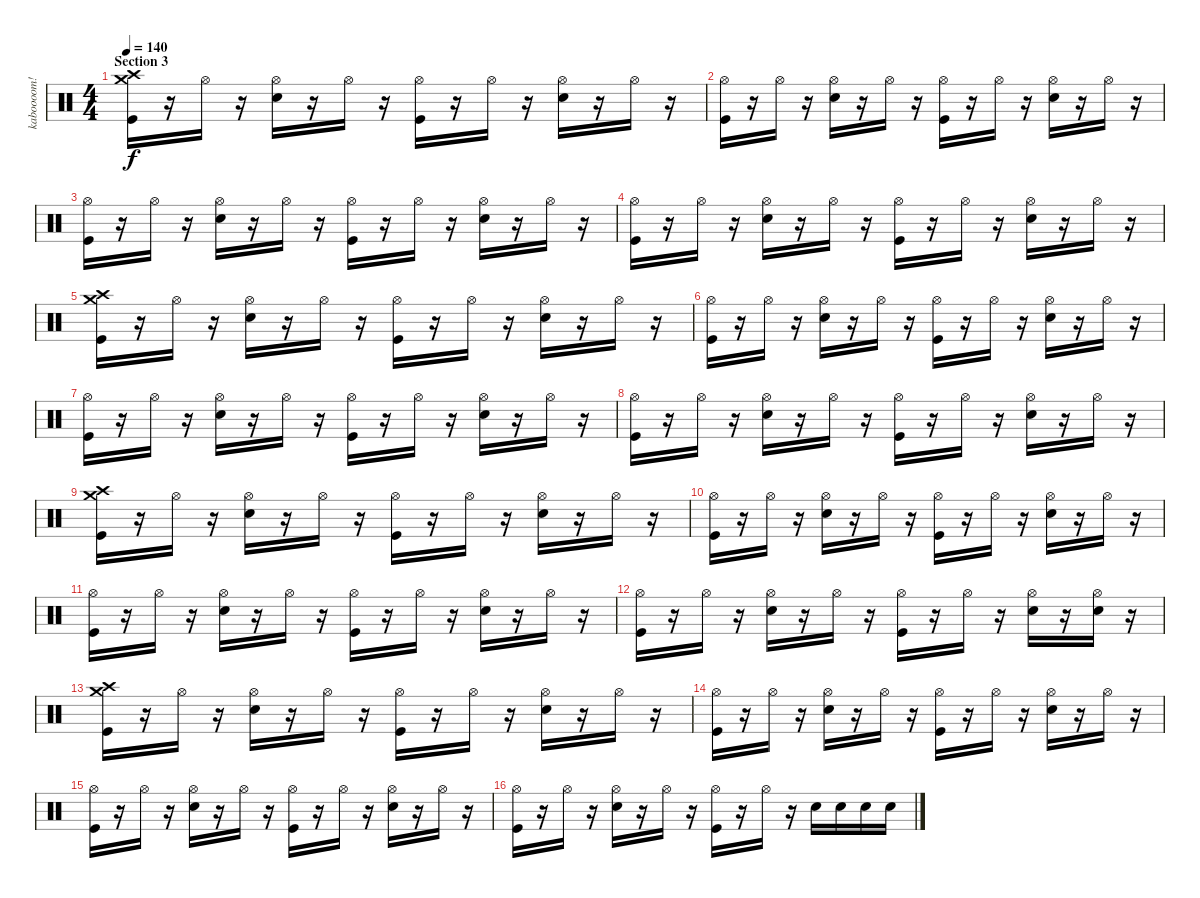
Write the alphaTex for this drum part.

\track ("kaboooom!" "kaboooom!") {instrument percussion}
\staff {score}
\articulation defaults
\ts (4 4)
\section ("" "Section 3")
\tempo 140
\clef neutral
\ks c
("Crash high (hit)" "Crash medium (hit)" "Kick (hit)").16{dy f} r.16 "Hi-Hat (open)".16 r.16 ("Hi-Hat (open)" "Electric Snare (hit)").16 r.16 "Hi-Hat (open)".16 r.16 ("Hi-Hat (open)" "Kick (hit)").16 r.16 "Hi-Hat (open)".16 r.16 ("Hi-Hat (open)" "Electric Snare (hit)").16 r.16 "Hi-Hat (open)".16 r.16 |
("Hi-Hat (open)" "Kick (hit)").16 r.16 "Hi-Hat (open)".16 r.16 ("Hi-Hat (open)" "Electric Snare (hit)").16 r.16 "Hi-Hat (open)".16 r.16 ("Hi-Hat (open)" "Kick (hit)").16 r.16 "Hi-Hat (open)".16 r.16 ("Hi-Hat (open)" "Electric Snare (hit)").16 r.16 "Hi-Hat (open)".16 r.16 |
("Hi-Hat (open)" "Kick (hit)").16 r.16 "Hi-Hat (open)".16 r.16 ("Hi-Hat (open)" "Electric Snare (hit)").16 r.16 "Hi-Hat (open)".16 r.16 ("Hi-Hat (open)" "Kick (hit)").16 r.16 "Hi-Hat (open)".16 r.16 ("Hi-Hat (open)" "Electric Snare (hit)").16 r.16 "Hi-Hat (open)".16 r.16 |
("Hi-Hat (open)" "Kick (hit)").16 r.16 "Hi-Hat (open)".16 r.16 ("Hi-Hat (open)" "Electric Snare (hit)").16 r.16 "Hi-Hat (open)".16 r.16 ("Hi-Hat (open)" "Kick (hit)").16 r.16 "Hi-Hat (open)".16 r.16 ("Hi-Hat (open)" "Electric Snare (hit)").16 r.16 "Hi-Hat (open)".16 r.16 |
("Crash high (hit)" "Crash medium (hit)" "Kick (hit)").16 r.16 "Hi-Hat (open)".16 r.16 ("Hi-Hat (open)" "Electric Snare (hit)").16 r.16 "Hi-Hat (open)".16 r.16 ("Hi-Hat (open)" "Kick (hit)").16 r.16 "Hi-Hat (open)".16 r.16 ("Hi-Hat (open)" "Electric Snare (hit)").16 r.16 "Hi-Hat (open)".16 r.16 |
("Hi-Hat (open)" "Kick (hit)").16 r.16 "Hi-Hat (open)".16 r.16 ("Hi-Hat (open)" "Electric Snare (hit)").16 r.16 "Hi-Hat (open)".16 r.16 ("Hi-Hat (open)" "Kick (hit)").16 r.16 "Hi-Hat (open)".16 r.16 ("Hi-Hat (open)" "Electric Snare (hit)").16 r.16 "Hi-Hat (open)".16 r.16 |
("Hi-Hat (open)" "Kick (hit)").16 r.16 "Hi-Hat (open)".16 r.16 ("Hi-Hat (open)" "Electric Snare (hit)").16 r.16 "Hi-Hat (open)".16 r.16 ("Hi-Hat (open)" "Kick (hit)").16 r.16 "Hi-Hat (open)".16 r.16 ("Hi-Hat (open)" "Electric Snare (hit)").16 r.16 "Hi-Hat (open)".16 r.16 |
("Hi-Hat (open)" "Kick (hit)").16 r.16 "Hi-Hat (open)".16 r.16 ("Hi-Hat (open)" "Electric Snare (hit)").16 r.16 "Hi-Hat (open)".16 r.16 ("Hi-Hat (open)" "Kick (hit)").16 r.16 "Hi-Hat (open)".16 r.16 ("Hi-Hat (open)" "Electric Snare (hit)").16 r.16 "Hi-Hat (open)".16 r.16 |
("Crash high (hit)" "Crash medium (hit)" "Kick (hit)").16 r.16 "Hi-Hat (open)".16 r.16 ("Hi-Hat (open)" "Electric Snare (hit)").16 r.16 "Hi-Hat (open)".16 r.16 ("Hi-Hat (open)" "Kick (hit)").16 r.16 "Hi-Hat (open)".16 r.16 ("Hi-Hat (open)" "Electric Snare (hit)").16 r.16 "Hi-Hat (open)".16 r.16 |
("Hi-Hat (open)" "Kick (hit)").16 r.16 "Hi-Hat (open)".16 r.16 ("Hi-Hat (open)" "Electric Snare (hit)").16 r.16 "Hi-Hat (open)".16 r.16 ("Hi-Hat (open)" "Kick (hit)").16 r.16 "Hi-Hat (open)".16 r.16 ("Hi-Hat (open)" "Electric Snare (hit)").16 r.16 "Hi-Hat (open)".16 r.16 |
("Hi-Hat (open)" "Kick (hit)").16 r.16 "Hi-Hat (open)".16 r.16 ("Hi-Hat (open)" "Electric Snare (hit)").16 r.16 "Hi-Hat (open)".16 r.16 ("Hi-Hat (open)" "Kick (hit)").16 r.16 "Hi-Hat (open)".16 r.16 ("Hi-Hat (open)" "Electric Snare (hit)").16 r.16 "Hi-Hat (open)".16 r.16 |
("Hi-Hat (open)" "Kick (hit)").16 r.16 "Hi-Hat (open)".16 r.16 ("Hi-Hat (open)" "Electric Snare (hit)").16 r.16 "Hi-Hat (open)".16 r.16 ("Hi-Hat (open)" "Kick (hit)").16 r.16 "Hi-Hat (open)".16 r.16 ("Hi-Hat (open)" "Electric Snare (hit)").16 r.16 ("Hi-Hat (open)" "Electric Snare (hit)").16 r.16 |
("Crash high (hit)" "Crash medium (hit)" "Kick (hit)").16 r.16 "Hi-Hat (open)".16 r.16 ("Hi-Hat (open)" "Electric Snare (hit)").16 r.16 "Hi-Hat (open)".16 r.16 ("Hi-Hat (open)" "Kick (hit)").16 r.16 "Hi-Hat (open)".16 r.16 ("Hi-Hat (open)" "Electric Snare (hit)").16 r.16 "Hi-Hat (open)".16 r.16 |
("Hi-Hat (open)" "Kick (hit)").16 r.16 "Hi-Hat (open)".16 r.16 ("Hi-Hat (open)" "Electric Snare (hit)").16 r.16 "Hi-Hat (open)".16 r.16 ("Hi-Hat (open)" "Kick (hit)").16 r.16 "Hi-Hat (open)".16 r.16 ("Hi-Hat (open)" "Electric Snare (hit)").16 r.16 "Hi-Hat (open)".16 r.16 |
("Hi-Hat (open)" "Kick (hit)").16 r.16 "Hi-Hat (open)".16 r.16 ("Hi-Hat (open)" "Electric Snare (hit)").16 r.16 "Hi-Hat (open)".16 r.16 ("Hi-Hat (open)" "Kick (hit)").16 r.16 "Hi-Hat (open)".16 r.16 ("Hi-Hat (open)" "Electric Snare (hit)").16 r.16 "Hi-Hat (open)".16 r.16 |
("Hi-Hat (open)" "Kick (hit)").16 r.16 "Hi-Hat (open)".16 r.16 ("Hi-Hat (open)" "Electric Snare (hit)").16 r.16 "Hi-Hat (open)".16 r.16 ("Hi-Hat (open)" "Kick (hit)").16 r.16 "Hi-Hat (open)".16 r.16 "Electric Snare (hit)".16 "Electric Snare (hit)".16 "Electric Snare (hit)".16 "Electric Snare (hit)".16
